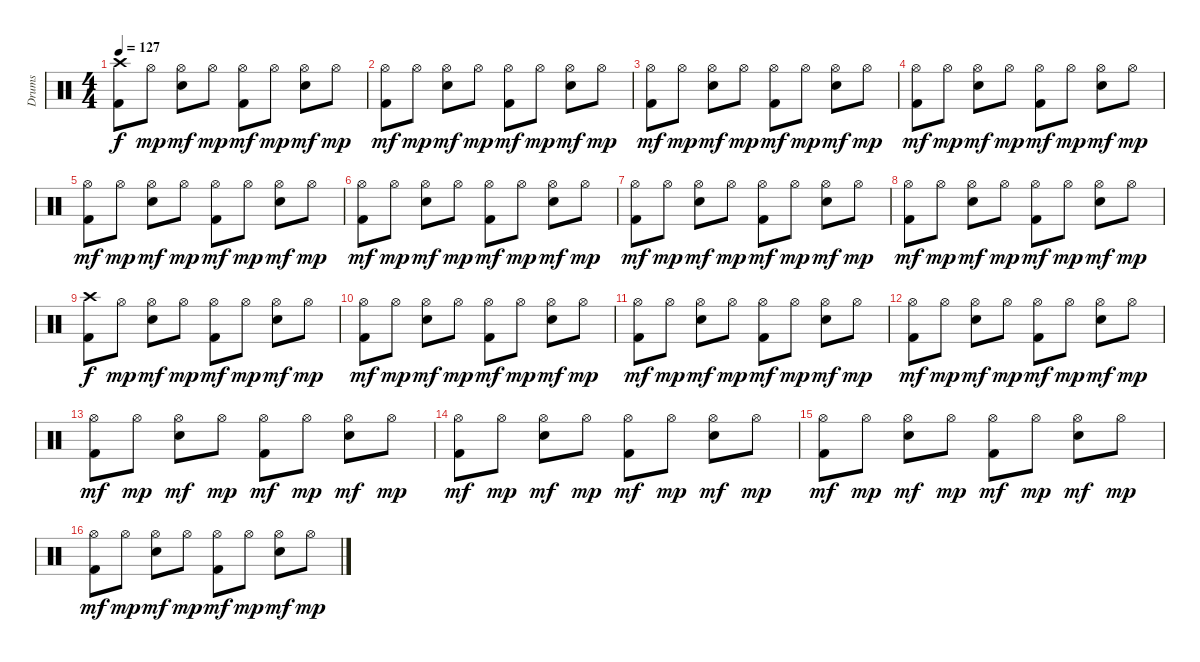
\track ("Drums" "Drums") {instrument percussion}
\staff {score}
\articulation defaults
\ts (4 4)
\tempo 127
\clef neutral
\ks c
("Crash high (hit)" "Kick (hit) 2").8{dy f} "Hi-Hat (open)".8{dy mp} ("Hi-Hat (open)" "Electric Snare (hit)").8{dy mf} "Hi-Hat (open)".8{dy mp} ("Hi-Hat (open)" "Kick (hit) 2").8{dy mf} "Hi-Hat (open)".8{dy mp} ("Hi-Hat (open)" "Electric Snare (hit)").8{dy mf} "Hi-Hat (open)".8{dy mp} |
("Hi-Hat (open)" "Kick (hit) 2").8{dy mf} "Hi-Hat (open)".8{dy mp} ("Hi-Hat (open)" "Electric Snare (hit)").8{dy mf} "Hi-Hat (open)".8{dy mp} ("Hi-Hat (open)" "Kick (hit) 2").8{dy mf} "Hi-Hat (open)".8{dy mp} ("Hi-Hat (open)" "Electric Snare (hit)").8{dy mf} "Hi-Hat (open)".8{dy mp} |
("Hi-Hat (open)" "Kick (hit) 2").8{dy mf} "Hi-Hat (open)".8{dy mp} ("Hi-Hat (open)" "Electric Snare (hit)").8{dy mf} "Hi-Hat (open)".8{dy mp} ("Hi-Hat (open)" "Kick (hit) 2").8{dy mf} "Hi-Hat (open)".8{dy mp} ("Hi-Hat (open)" "Electric Snare (hit)").8{dy mf} "Hi-Hat (open)".8{dy mp} |
("Hi-Hat (open)" "Kick (hit) 2").8{dy mf} "Hi-Hat (open)".8{dy mp} ("Hi-Hat (open)" "Electric Snare (hit)").8{dy mf} "Hi-Hat (open)".8{dy mp} ("Hi-Hat (open)" "Kick (hit) 2").8{dy mf} "Hi-Hat (open)".8{dy mp} ("Hi-Hat (open)" "Electric Snare (hit)").8{dy mf} "Hi-Hat (open)".8{dy mp} |
("Hi-Hat (open)" "Kick (hit) 2").8{dy mf} "Hi-Hat (open)".8{dy mp} ("Hi-Hat (open)" "Electric Snare (hit)").8{dy mf} "Hi-Hat (open)".8{dy mp} ("Hi-Hat (open)" "Kick (hit) 2").8{dy mf} "Hi-Hat (open)".8{dy mp} ("Hi-Hat (open)" "Electric Snare (hit)").8{dy mf} "Hi-Hat (open)".8{dy mp} |
("Hi-Hat (open)" "Kick (hit) 2").8{dy mf} "Hi-Hat (open)".8{dy mp} ("Hi-Hat (open)" "Electric Snare (hit)").8{dy mf} "Hi-Hat (open)".8{dy mp} ("Hi-Hat (open)" "Kick (hit) 2").8{dy mf} "Hi-Hat (open)".8{dy mp} ("Hi-Hat (open)" "Electric Snare (hit)").8{dy mf} "Hi-Hat (open)".8{dy mp} |
("Hi-Hat (open)" "Kick (hit) 2").8{dy mf} "Hi-Hat (open)".8{dy mp} ("Hi-Hat (open)" "Electric Snare (hit)").8{dy mf} "Hi-Hat (open)".8{dy mp} ("Hi-Hat (open)" "Kick (hit) 2").8{dy mf} "Hi-Hat (open)".8{dy mp} ("Hi-Hat (open)" "Electric Snare (hit)").8{dy mf} "Hi-Hat (open)".8{dy mp} |
("Hi-Hat (open)" "Kick (hit) 2").8{dy mf} "Hi-Hat (open)".8{dy mp} ("Hi-Hat (open)" "Electric Snare (hit)").8{dy mf} "Hi-Hat (open)".8{dy mp} ("Hi-Hat (open)" "Kick (hit) 2").8{dy mf} "Hi-Hat (open)".8{dy mp} ("Hi-Hat (open)" "Electric Snare (hit)").8{dy mf} "Hi-Hat (open)".8{dy mp} |
("Crash high (hit)" "Kick (hit) 2").8{dy f} "Hi-Hat (open)".8{dy mp} ("Hi-Hat (open)" "Electric Snare (hit)").8{dy mf} "Hi-Hat (open)".8{dy mp} ("Hi-Hat (open)" "Kick (hit) 2").8{dy mf} "Hi-Hat (open)".8{dy mp} ("Hi-Hat (open)" "Electric Snare (hit)").8{dy mf} "Hi-Hat (open)".8{dy mp} |
("Hi-Hat (open)" "Kick (hit) 2").8{dy mf} "Hi-Hat (open)".8{dy mp} ("Hi-Hat (open)" "Electric Snare (hit)").8{dy mf} "Hi-Hat (open)".8{dy mp} ("Hi-Hat (open)" "Kick (hit) 2").8{dy mf} "Hi-Hat (open)".8{dy mp} ("Hi-Hat (open)" "Electric Snare (hit)").8{dy mf} "Hi-Hat (open)".8{dy mp} |
("Hi-Hat (open)" "Kick (hit) 2").8{dy mf} "Hi-Hat (open)".8{dy mp} ("Hi-Hat (open)" "Electric Snare (hit)").8{dy mf} "Hi-Hat (open)".8{dy mp} ("Hi-Hat (open)" "Kick (hit) 2").8{dy mf} "Hi-Hat (open)".8{dy mp} ("Hi-Hat (open)" "Electric Snare (hit)").8{dy mf} "Hi-Hat (open)".8{dy mp} |
("Hi-Hat (open)" "Kick (hit) 2").8{dy mf} "Hi-Hat (open)".8{dy mp} ("Hi-Hat (open)" "Electric Snare (hit)").8{dy mf} "Hi-Hat (open)".8{dy mp} ("Hi-Hat (open)" "Kick (hit) 2").8{dy mf} "Hi-Hat (open)".8{dy mp} ("Hi-Hat (open)" "Electric Snare (hit)").8{dy mf} "Hi-Hat (open)".8{dy mp} |
("Hi-Hat (open)" "Kick (hit) 2").8{dy mf} "Hi-Hat (open)".8{dy mp} ("Hi-Hat (open)" "Electric Snare (hit)").8{dy mf} "Hi-Hat (open)".8{dy mp} ("Hi-Hat (open)" "Kick (hit) 2").8{dy mf} "Hi-Hat (open)".8{dy mp} ("Hi-Hat (open)" "Electric Snare (hit)").8{dy mf} "Hi-Hat (open)".8{dy mp} |
("Hi-Hat (open)" "Kick (hit) 2").8{dy mf} "Hi-Hat (open)".8{dy mp} ("Hi-Hat (open)" "Electric Snare (hit)").8{dy mf} "Hi-Hat (open)".8{dy mp} ("Hi-Hat (open)" "Kick (hit) 2").8{dy mf} "Hi-Hat (open)".8{dy mp} ("Hi-Hat (open)" "Electric Snare (hit)").8{dy mf} "Hi-Hat (open)".8{dy mp} |
("Hi-Hat (open)" "Kick (hit) 2").8{dy mf} "Hi-Hat (open)".8{dy mp} ("Hi-Hat (open)" "Electric Snare (hit)").8{dy mf} "Hi-Hat (open)".8{dy mp} ("Hi-Hat (open)" "Kick (hit) 2").8{dy mf} "Hi-Hat (open)".8{dy mp} ("Hi-Hat (open)" "Electric Snare (hit)").8{dy mf} "Hi-Hat (open)".8{dy mp} |
("Hi-Hat (open)" "Kick (hit) 2").8{dy mf} "Hi-Hat (open)".8{dy mp} ("Hi-Hat (open)" "Electric Snare (hit)").8{dy mf} "Hi-Hat (open)".8{dy mp} ("Hi-Hat (open)" "Kick (hit) 2").8{dy mf} "Hi-Hat (open)".8{dy mp} ("Hi-Hat (open)" "Electric Snare (hit)").8{dy mf} "Hi-Hat (open)".8{dy mp}
